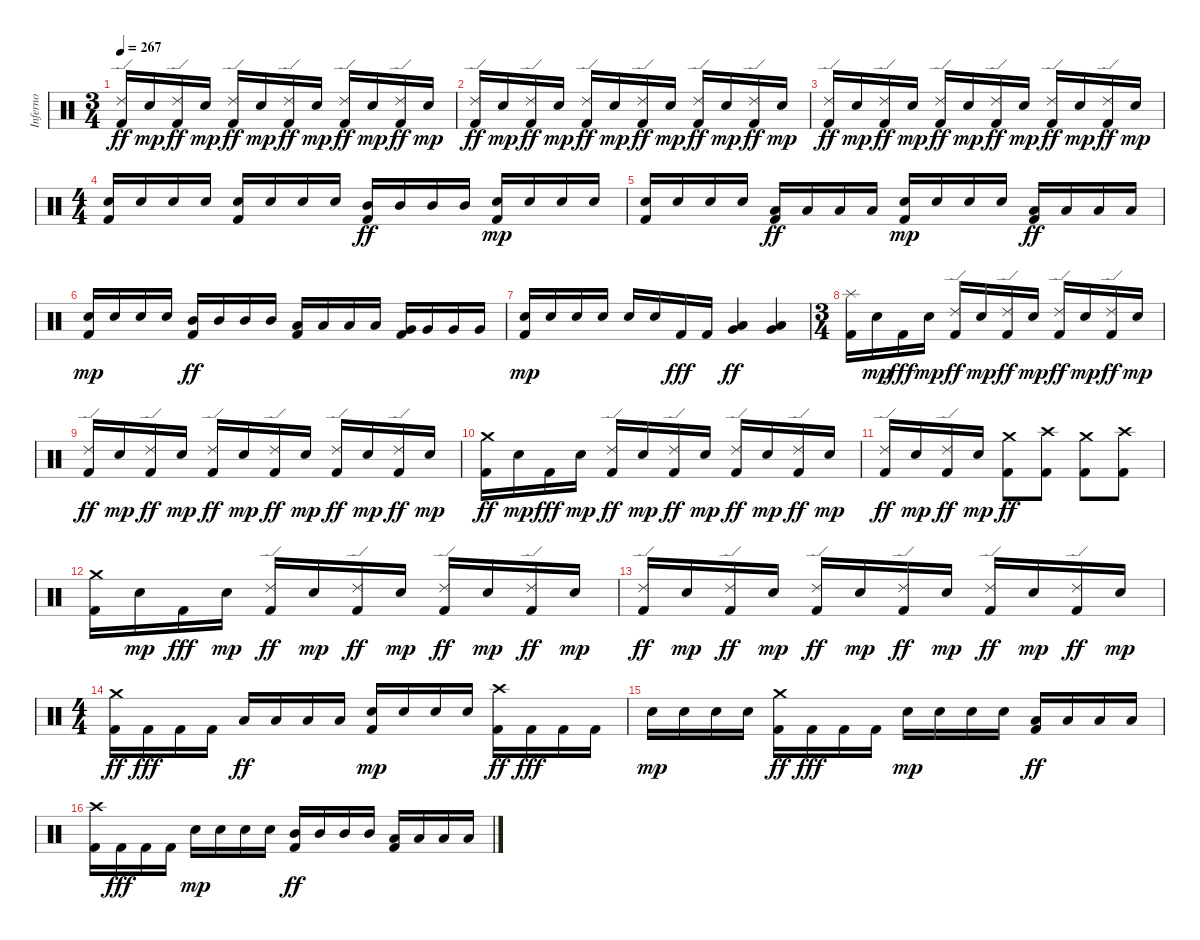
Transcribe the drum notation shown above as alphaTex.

\track ("Inferno" "Inferno") {instrument percussion}
\staff {score}
\articulation defaults
\ts (3 4)
\tempo 267
\clef neutral
\ks c
("Kick (hit) 2" "Ride (edge) 2").16{dy ff} "Electric Snare (hit)".16{dy mp} ("Kick (hit) 2" "Ride (edge) 2").16{dy ff} "Electric Snare (hit)".16{dy mp} ("Kick (hit) 2" "Ride (edge) 2").16{dy ff} "Electric Snare (hit)".16{dy mp} ("Kick (hit) 2" "Ride (edge) 2").16{dy ff} "Electric Snare (hit)".16{dy mp} ("Kick (hit) 2" "Ride (edge) 2").16{dy ff} "Electric Snare (hit)".16{dy mp} ("Kick (hit) 2" "Ride (edge) 2").16{dy ff} "Electric Snare (hit)".16{dy mp} |
("Kick (hit) 2" "Ride (edge) 2").16{dy ff} "Electric Snare (hit)".16{dy mp} ("Kick (hit) 2" "Ride (edge) 2").16{dy ff} "Electric Snare (hit)".16{dy mp} ("Kick (hit) 2" "Ride (edge) 2").16{dy ff} "Electric Snare (hit)".16{dy mp} ("Kick (hit) 2" "Ride (edge) 2").16{dy ff} "Electric Snare (hit)".16{dy mp} ("Kick (hit) 2" "Ride (edge) 2").16{dy ff} "Electric Snare (hit)".16{dy mp} ("Kick (hit) 2" "Ride (edge) 2").16{dy ff} "Electric Snare (hit)".16{dy mp} |
("Kick (hit) 2" "Ride (edge) 2").16{dy ff} "Electric Snare (hit)".16{dy mp} ("Kick (hit) 2" "Ride (edge) 2").16{dy ff} "Electric Snare (hit)".16{dy mp} ("Kick (hit) 2" "Ride (edge) 2").16{dy ff} "Electric Snare (hit)".16{dy mp} ("Kick (hit) 2" "Ride (edge) 2").16{dy ff} "Electric Snare (hit)".16{dy mp} ("Kick (hit) 2" "Ride (edge) 2").16{dy ff} "Electric Snare (hit)".16{dy mp} ("Kick (hit) 2" "Ride (edge) 2").16{dy ff} "Electric Snare (hit)".16{dy mp} |
\ts (4 4)
("Kick (hit) 2" "Electric Snare (hit)").16 "Electric Snare (hit)".16 "Electric Snare (hit)".16 "Electric Snare (hit)".16 ("Kick (hit) 2" "Electric Snare (hit)").16 "Electric Snare (hit)".16 "Electric Snare (hit)".16 "Electric Snare (hit)".16 ("Kick (hit) 2" "Mid Tom (hit)").16{dy ff} "Mid Tom (hit)".16 "Mid Tom (hit)".16 "Mid Tom (hit)".16 ("Kick (hit) 2" "Electric Snare (hit)").16{dy mp} "Electric Snare (hit)".16 "Electric Snare (hit)".16 "Electric Snare (hit)".16 |
("Kick (hit) 2" "Electric Snare (hit)").16 "Electric Snare (hit)".16 "Electric Snare (hit)".16 "Electric Snare (hit)".16 ("Kick (hit) 2" "Low Tom (hit)").16{dy ff} "Low Tom (hit)".16 "Low Tom (hit)".16 "Low Tom (hit)".16 ("Kick (hit) 2" "Electric Snare (hit)").16{dy mp} "Electric Snare (hit)".16 "Electric Snare (hit)".16 "Electric Snare (hit)".16 ("Kick (hit) 2" "Low Tom (hit)").16{dy ff} "Low Tom (hit)".16 "Low Tom (hit)".16 "Low Tom (hit)".16 |
("Kick (hit) 2" "Electric Snare (hit)").16{dy mp} "Electric Snare (hit)".16 "Electric Snare (hit)".16 "Electric Snare (hit)".16 ("Kick (hit) 2" "Mid Tom (hit)").16{dy ff} "Mid Tom (hit)".16 "Mid Tom (hit)".16 "Mid Tom (hit)".16 ("Kick (hit) 2" "Low Tom (hit)").16 "Low Tom (hit)".16 "Low Tom (hit)".16 "Low Tom (hit)".16 ("Kick (hit) 2" "Very Low Tom (hit)").16 "Very Low Tom (hit)".16 "Very Low Tom (hit)".16 "Very Low Tom (hit)".16 |
("Kick (hit) 2" "Electric Snare (hit)").16{dy mp} "Electric Snare (hit)".16 "Electric Snare (hit)".16 "Electric Snare (hit)".16 "Electric Snare (hit)".16 "Electric Snare (hit)".16 "Kick (hit) 2".16{dy fff} "Kick (hit) 2".16 ("Very Low Tom (hit)" "Low Floor Tom (hit)").4{dy ff} ("Very Low Tom (hit)" "Low Floor Tom (hit)").4 |
\ts (3 4)
("Kick (hit) 2" "Splash (hit)").16 "Electric Snare (hit)".16{dy mp} "Kick (hit) 2".16{dy fff} "Electric Snare (hit)".16{dy mp} ("Kick (hit) 2" "Ride (edge) 2").16{dy ff} "Electric Snare (hit)".16{dy mp} ("Kick (hit) 2" "Ride (edge) 2").16{dy ff} "Electric Snare (hit)".16{dy mp} ("Kick (hit) 2" "Ride (edge) 2").16{dy ff} "Electric Snare (hit)".16{dy mp} ("Kick (hit) 2" "Ride (edge) 2").16{dy ff} "Electric Snare (hit)".16{dy mp} |
("Kick (hit) 2" "Ride (edge) 2").16{dy ff} "Electric Snare (hit)".16{dy mp} ("Kick (hit) 2" "Ride (edge) 2").16{dy ff} "Electric Snare (hit)".16{dy mp} ("Kick (hit) 2" "Ride (edge) 2").16{dy ff} "Electric Snare (hit)".16{dy mp} ("Kick (hit) 2" "Ride (edge) 2").16{dy ff} "Electric Snare (hit)".16{dy mp} ("Kick (hit) 2" "Ride (edge) 2").16{dy ff} "Electric Snare (hit)".16{dy mp} ("Kick (hit) 2" "Ride (edge) 2").16{dy ff} "Electric Snare (hit)".16{dy mp} |
("Kick (hit) 2" "Crash medium (hit)").16{dy ff} "Electric Snare (hit)".16{dy mp} "Kick (hit) 2".16{dy fff} "Electric Snare (hit)".16{dy mp} ("Kick (hit) 2" "Ride (edge) 2").16{dy ff} "Electric Snare (hit)".16{dy mp} ("Kick (hit) 2" "Ride (edge) 2").16{dy ff} "Electric Snare (hit)".16{dy mp} ("Kick (hit) 2" "Ride (edge) 2").16{dy ff} "Electric Snare (hit)".16{dy mp} ("Kick (hit) 2" "Ride (edge) 2").16{dy ff} "Electric Snare (hit)".16{dy mp} |
("Kick (hit) 2" "Ride (edge) 2").16{dy ff} "Electric Snare (hit)".16{dy mp} ("Kick (hit) 2" "Ride (edge) 2").16{dy ff} "Electric Snare (hit)".16{dy mp} ("Kick (hit) 2" "Crash medium (hit)").8{dy ff} ("Kick (hit) 2" "Crash high (hit)").8 ("Kick (hit) 2" "Crash medium (hit)").8 ("Kick (hit) 2" "Crash high (hit)").8 |
("Kick (hit) 2" "Crash medium (hit)").16 "Electric Snare (hit)".16{dy mp} "Kick (hit) 2".16{dy fff} "Electric Snare (hit)".16{dy mp} ("Kick (hit) 2" "Ride (edge) 2").16{dy ff} "Electric Snare (hit)".16{dy mp} ("Kick (hit) 2" "Ride (edge) 2").16{dy ff} "Electric Snare (hit)".16{dy mp} ("Kick (hit) 2" "Ride (edge) 2").16{dy ff} "Electric Snare (hit)".16{dy mp} ("Kick (hit) 2" "Ride (edge) 2").16{dy ff} "Electric Snare (hit)".16{dy mp} |
("Kick (hit) 2" "Ride (edge) 2").16{dy ff} "Electric Snare (hit)".16{dy mp} ("Kick (hit) 2" "Ride (edge) 2").16{dy ff} "Electric Snare (hit)".16{dy mp} ("Kick (hit) 2" "Ride (edge) 2").16{dy ff} "Electric Snare (hit)".16{dy mp} ("Kick (hit) 2" "Ride (edge) 2").16{dy ff} "Electric Snare (hit)".16{dy mp} ("Kick (hit) 2" "Ride (edge) 2").16{dy ff} "Electric Snare (hit)".16{dy mp} ("Kick (hit) 2" "Ride (edge) 2").16{dy ff} "Electric Snare (hit)".16{dy mp} |
\ts (4 4)
("Kick (hit) 2" "Crash medium (hit)").16{dy ff} "Kick (hit) 2".16{dy fff} "Kick (hit) 2".16 "Kick (hit) 2".16 "Low Tom (hit)".16{dy ff} "Low Tom (hit)".16 "Low Tom (hit)".16 "Low Tom (hit)".16 ("Kick (hit) 2" "Electric Snare (hit)").16{dy mp} "Electric Snare (hit)".16 "Electric Snare (hit)".16 "Electric Snare (hit)".16 ("Kick (hit) 2" "Crash high (hit)").16{dy ff} "Kick (hit) 2".16{dy fff} "Kick (hit) 2".16 "Kick (hit) 2".16 |
"Electric Snare (hit)".16{dy mp} "Electric Snare (hit)".16 "Electric Snare (hit)".16 "Electric Snare (hit)".16 ("Kick (hit) 2" "Crash medium (hit)").16{dy ff} "Kick (hit) 2".16{dy fff} "Kick (hit) 2".16 "Kick (hit) 2".16 "Electric Snare (hit)".16{dy mp} "Electric Snare (hit)".16 "Electric Snare (hit)".16 "Electric Snare (hit)".16 ("Kick (hit) 2" "Low Tom (hit)").16{dy ff} "Low Tom (hit)".16 "Low Tom (hit)".16 "Low Tom (hit)".16 |
("Kick (hit) 2" "Crash high (hit)").16 "Kick (hit) 2".16{dy fff} "Kick (hit) 2".16 "Kick (hit) 2".16 "Electric Snare (hit)".16{dy mp} "Electric Snare (hit)".16 "Electric Snare (hit)".16 "Electric Snare (hit)".16 ("Kick (hit) 2" "Mid Tom (hit)").16{dy ff} "Mid Tom (hit)".16 "Mid Tom (hit)".16 "Mid Tom (hit)".16 ("Kick (hit) 2" "Low Tom (hit)").16 "Low Tom (hit)".16 "Low Tom (hit)".16 "Low Tom (hit)".16
